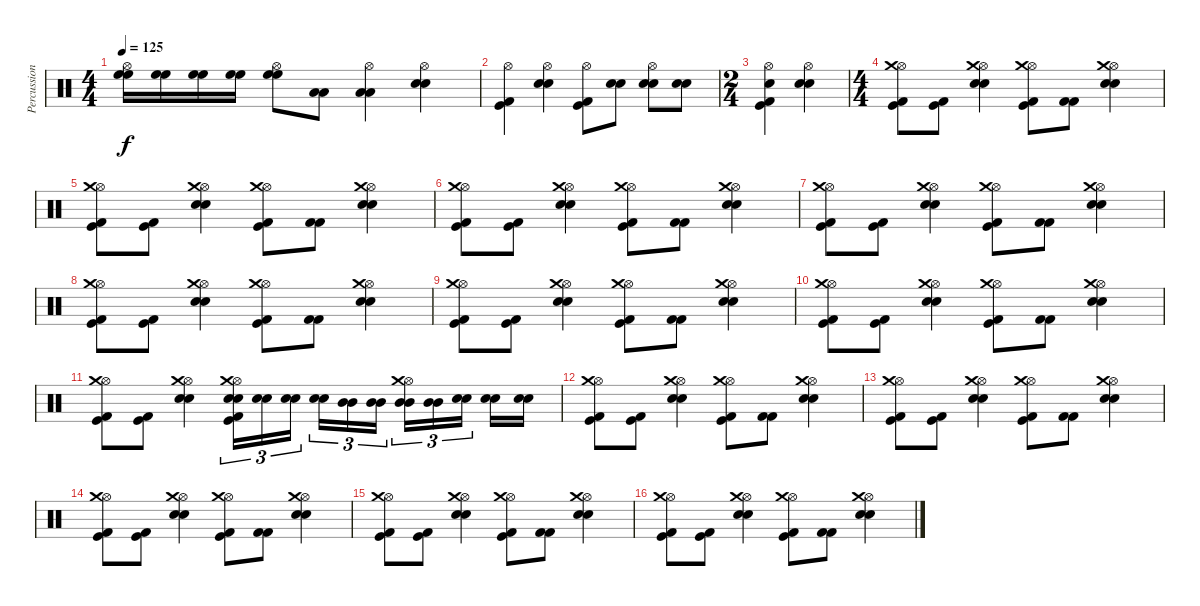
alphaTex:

\track ("Percussions" "Percussion") {instrument percussion}
\staff {score}
\articulation defaults
\ts (4 4)
\tempo 125
\clef neutral
\ks c
("High Floor Tom (hit)" "High Floor Tom (hit)" "Hi-Hat (open)").16{dy f} ("High Floor Tom (hit)" "High Floor Tom (hit)").16 ("High Floor Tom (hit)" "High Floor Tom (hit)").16 ("High Floor Tom (hit)" "High Floor Tom (hit)").16 ("High Floor Tom (hit)" "High Floor Tom (hit)" "Hi-Hat (open)").8 ("Low Floor Tom (hit)" "Low Floor Tom (hit)").8 ("Low Floor Tom (hit)" "Low Floor Tom (hit)" "Hi-Hat (open)").4 ("Snare (hit) 2" "Snare (hit) 2" "Hi-Hat (open)").4 |
("Kick (hit)" "Kick (hit) 2" "Hi-Hat (open)").4 ("Snare (hit) 2" "Snare (hit) 2" "Hi-Hat (open)").4 ("Kick (hit)" "Kick (hit) 2" "Hi-Hat (open)").8 ("Snare (hit) 2" "Snare (hit) 2").8 ("Snare (hit) 2" "Snare (hit) 2" "Hi-Hat (open)").8 ("Snare (hit) 2" "Snare (hit) 2").8 |
\ts (2 4)
("Snare (hit) 2" "Kick (hit)" "Kick (hit) 2" "Hi-Hat (open)").4 ("Snare (hit) 2" "Snare (hit) 2" "Hi-Hat (open)").4 |
\ts (4 4)
("Kick (hit)" "Kick (hit) 2" "Hi-Hat (open)" "Crash medium (hit)").8 ("Kick (hit)" "Kick (hit) 2").8 ("Snare (hit) 2" "Snare (hit) 2" "Hi-Hat (open)" "Crash medium (hit)").4 ("Kick (hit)" "Kick (hit) 2" "Hi-Hat (open)" "Crash medium (hit)").8 ("Kick (hit) 2" "Kick (hit) 2").8 ("Snare (hit) 2" "Snare (hit) 2" "Hi-Hat (open)" "Crash medium (hit)").4 |
("Kick (hit)" "Kick (hit) 2" "Hi-Hat (open)" "Crash medium (hit)").8 ("Kick (hit)" "Kick (hit) 2").8 ("Snare (hit) 2" "Snare (hit) 2" "Hi-Hat (open)" "Crash medium (hit)").4 ("Kick (hit)" "Kick (hit) 2" "Hi-Hat (open)" "Crash medium (hit)").8 ("Kick (hit) 2" "Kick (hit) 2").8 ("Snare (hit) 2" "Snare (hit) 2" "Hi-Hat (open)" "Crash medium (hit)").4 |
("Kick (hit)" "Kick (hit) 2" "Hi-Hat (open)" "Crash medium (hit)").8 ("Kick (hit)" "Kick (hit) 2").8 ("Snare (hit) 2" "Snare (hit) 2" "Hi-Hat (open)" "Crash medium (hit)").4 ("Kick (hit)" "Kick (hit) 2" "Hi-Hat (open)" "Crash medium (hit)").8 ("Kick (hit) 2" "Kick (hit) 2").8 ("Snare (hit) 2" "Snare (hit) 2" "Hi-Hat (open)" "Crash medium (hit)").4 |
("Kick (hit)" "Kick (hit) 2" "Hi-Hat (open)" "Crash medium (hit)").8 ("Kick (hit)" "Kick (hit) 2").8 ("Snare (hit) 2" "Snare (hit) 2" "Hi-Hat (open)" "Crash medium (hit)").4 ("Kick (hit)" "Kick (hit) 2" "Hi-Hat (open)" "Crash medium (hit)").8 ("Kick (hit) 2" "Kick (hit) 2").8 ("Snare (hit) 2" "Snare (hit) 2" "Hi-Hat (open)" "Crash medium (hit)").4 |
("Kick (hit)" "Kick (hit) 2" "Hi-Hat (open)" "Crash medium (hit)").8 ("Kick (hit)" "Kick (hit) 2").8 ("Snare (hit) 2" "Snare (hit) 2" "Hi-Hat (open)" "Crash medium (hit)").4 ("Kick (hit)" "Kick (hit) 2" "Hi-Hat (open)" "Crash medium (hit)").8 ("Kick (hit) 2" "Kick (hit) 2").8 ("Snare (hit) 2" "Snare (hit) 2" "Hi-Hat (open)" "Crash medium (hit)").4 |
("Kick (hit)" "Kick (hit) 2" "Hi-Hat (open)" "Crash medium (hit)").8 ("Kick (hit)" "Kick (hit) 2").8 ("Snare (hit) 2" "Snare (hit) 2" "Hi-Hat (open)" "Crash medium (hit)").4 ("Kick (hit)" "Kick (hit) 2" "Hi-Hat (open)" "Crash medium (hit)").8 ("Kick (hit) 2" "Kick (hit) 2").8 ("Snare (hit) 2" "Snare (hit) 2" "Hi-Hat (open)" "Crash medium (hit)").4 |
("Kick (hit)" "Kick (hit) 2" "Hi-Hat (open)" "Crash medium (hit)").8 ("Kick (hit)" "Kick (hit) 2").8 ("Snare (hit) 2" "Snare (hit) 2" "Hi-Hat (open)" "Crash medium (hit)").4 ("Kick (hit)" "Kick (hit) 2" "Hi-Hat (open)" "Crash medium (hit)").8 ("Kick (hit) 2" "Kick (hit) 2").8 ("Snare (hit) 2" "Snare (hit) 2" "Hi-Hat (open)" "Crash medium (hit)").4 |
("Kick (hit)" "Kick (hit) 2" "Hi-Hat (open)" "Crash medium (hit)").8 ("Kick (hit)" "Kick (hit) 2").8 ("Snare (hit) 2" "Snare (hit) 2" "Hi-Hat (open)" "Crash medium (hit)").4 ("Snare (hit) 2" "Snare (hit) 2" "Kick (hit)" "Kick (hit) 2" "Hi-Hat (open)" "Crash medium (hit)").16{tu (3 2)} ("Snare (hit) 2" "Snare (hit) 2").16{tu (3 2)} ("Snare (hit) 2" "Snare (hit) 2").16{tu (3 2)} ("Snare (hit) 2" "Snare (hit) 2").16{tu (3 2)} ("Mid Tom (hit)" "Mid Tom (hit)").16{tu (3 2)} ("Mid Tom (hit)" "Mid Tom (hit)").16{tu (3 2)} ("Mid Tom (hit)" "Mid Tom (hit)" "Hi-Hat (open)" "Crash medium (hit)").16{tu (3 2)} ("Mid Tom (hit)" "Mid Tom (hit)").16{tu (3 2)} ("Snare (hit) 2" "Snare (hit) 2").16{tu (3 2)} ("Snare (hit) 2" "Snare (hit) 2").16 ("Snare (hit) 2" "Snare (hit) 2").16 |
("Kick (hit)" "Kick (hit) 2" "Hi-Hat (open)" "Crash medium (hit)").8 ("Kick (hit)" "Kick (hit) 2").8 ("Snare (hit) 2" "Snare (hit) 2" "Hi-Hat (open)" "Crash medium (hit)").4 ("Kick (hit)" "Kick (hit) 2" "Hi-Hat (open)" "Crash medium (hit)").8 ("Kick (hit) 2" "Kick (hit) 2").8 ("Snare (hit) 2" "Snare (hit) 2" "Hi-Hat (open)" "Crash medium (hit)").4 |
("Kick (hit)" "Kick (hit) 2" "Hi-Hat (open)" "Crash medium (hit)").8 ("Kick (hit)" "Kick (hit) 2").8 ("Snare (hit) 2" "Snare (hit) 2" "Hi-Hat (open)" "Crash medium (hit)").4 ("Kick (hit)" "Kick (hit) 2" "Hi-Hat (open)" "Crash medium (hit)").8 ("Kick (hit) 2" "Kick (hit) 2").8 ("Snare (hit) 2" "Snare (hit) 2" "Hi-Hat (open)" "Crash medium (hit)").4 |
("Kick (hit)" "Kick (hit) 2" "Hi-Hat (open)" "Crash medium (hit)").8 ("Kick (hit)" "Kick (hit) 2").8 ("Snare (hit) 2" "Snare (hit) 2" "Hi-Hat (open)" "Crash medium (hit)").4 ("Kick (hit)" "Kick (hit) 2" "Hi-Hat (open)" "Crash medium (hit)").8 ("Kick (hit) 2" "Kick (hit) 2").8 ("Snare (hit) 2" "Snare (hit) 2" "Hi-Hat (open)" "Crash medium (hit)").4 |
("Kick (hit)" "Kick (hit) 2" "Hi-Hat (open)" "Crash medium (hit)").8 ("Kick (hit)" "Kick (hit) 2").8 ("Snare (hit) 2" "Snare (hit) 2" "Hi-Hat (open)" "Crash medium (hit)").4 ("Kick (hit)" "Kick (hit) 2" "Hi-Hat (open)" "Crash medium (hit)").8 ("Kick (hit) 2" "Kick (hit) 2").8 ("Snare (hit) 2" "Snare (hit) 2" "Hi-Hat (open)" "Crash medium (hit)").4 |
("Kick (hit)" "Kick (hit) 2" "Hi-Hat (open)" "Crash medium (hit)").8 ("Kick (hit)" "Kick (hit) 2").8 ("Snare (hit) 2" "Snare (hit) 2" "Hi-Hat (open)" "Crash medium (hit)").4 ("Kick (hit)" "Kick (hit) 2" "Hi-Hat (open)" "Crash medium (hit)").8 ("Kick (hit) 2" "Kick (hit) 2").8 ("Snare (hit) 2" "Snare (hit) 2" "Hi-Hat (open)" "Crash medium (hit)").4
